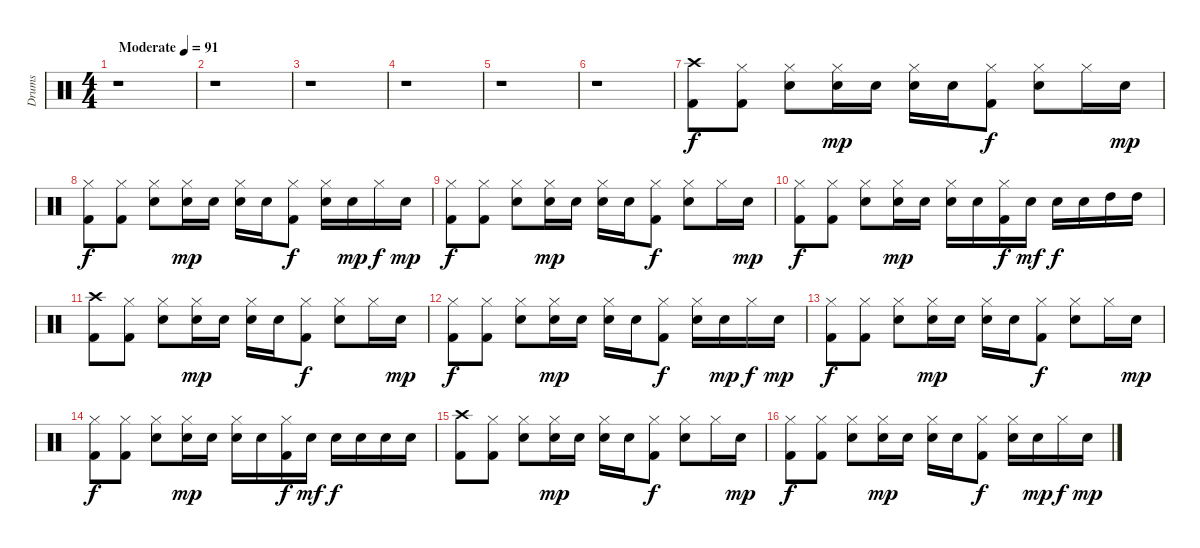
\track ("Drums" "Drums") {instrument percussion}
\staff {score}
\articulation defaults
\ts (4 4)
\tempo (91 "Moderate")
\clef neutral
\ks c
r.1{dy f} |
r.1 |
r.1 |
r.1 |
r.1 |
r.1 |
("Kick (hit) 2" "Crash high (hit)").8{volume 16 balance 8} ("Kick (hit) 2" "Hi-Hat (closed)").8 ("Snare (hit) 2" "Hi-Hat (closed)").8 ("Snare (hit) 2" "Hi-Hat (closed)").16{dy mp} "Snare (hit) 2".16 ("Snare (hit) 2" "Hi-Hat (closed)").16 "Snare (hit) 2".16 ("Kick (hit) 2" "Hi-Hat (closed)").8{dy f} ("Snare (hit) 2" "Hi-Hat (closed)").8 "Hi-Hat (closed)".16 "Snare (hit) 2".16{dy mp} |
("Kick (hit) 2" "Hi-Hat (closed)").8{dy f} ("Kick (hit) 2" "Hi-Hat (closed)").8 ("Snare (hit) 2" "Hi-Hat (closed)").8 ("Snare (hit) 2" "Hi-Hat (closed)").16{dy mp} "Snare (hit) 2".16 ("Snare (hit) 2" "Hi-Hat (closed)").16 "Snare (hit) 2".16 ("Kick (hit) 2" "Hi-Hat (closed)").8{dy f} ("Snare (hit) 2" "Hi-Hat (closed)").16 "Snare (hit) 2".16{dy mp} "Hi-Hat (closed)".16{dy f} "Snare (hit) 2".16{dy mp} |
("Kick (hit) 2" "Hi-Hat (closed)").8{dy f} ("Kick (hit) 2" "Hi-Hat (closed)").8 ("Snare (hit) 2" "Hi-Hat (closed)").8 ("Snare (hit) 2" "Hi-Hat (closed)").16{dy mp} "Snare (hit) 2".16 ("Snare (hit) 2" "Hi-Hat (closed)").16 "Snare (hit) 2".16 ("Kick (hit) 2" "Hi-Hat (closed)").8{dy f} ("Snare (hit) 2" "Hi-Hat (closed)").8 "Hi-Hat (closed)".16 "Snare (hit) 2".16{dy mp} |
("Hi-Hat (closed)" "Kick (hit) 2").8{dy f} ("Hi-Hat (closed)" "Kick (hit) 2").8 ("Hi-Hat (closed)" "Snare (hit) 2").8 ("Hi-Hat (closed)" "Snare (hit) 2").16{dy mp} "Snare (hit) 2".16 ("Hi-Hat (closed)" "Snare (hit) 2").16 "Snare (hit) 2".16 ("Hi-Hat (closed)" "Kick (hit) 2").16{dy f} "Snare (hit) 2".16{dy mf} "Snare (hit) 2".16{dy f} "Snare (hit) 2".16 "High Tom (hit)".16 "High Tom (hit)".16 |
("Kick (hit) 2" "Crash high (hit)").8{volume 16} ("Kick (hit) 2" "Hi-Hat (closed)").8 ("Snare (hit) 2" "Hi-Hat (closed)").8 ("Snare (hit) 2" "Hi-Hat (closed)").16{dy mp} "Snare (hit) 2".16 ("Snare (hit) 2" "Hi-Hat (closed)").16 "Snare (hit) 2".16 ("Kick (hit) 2" "Hi-Hat (closed)").8{dy f} ("Snare (hit) 2" "Hi-Hat (closed)").8 "Hi-Hat (closed)".16 "Snare (hit) 2".16{dy mp} |
("Kick (hit) 2" "Hi-Hat (closed)").8{dy f} ("Kick (hit) 2" "Hi-Hat (closed)").8 ("Snare (hit) 2" "Hi-Hat (closed)").8 ("Snare (hit) 2" "Hi-Hat (closed)").16{dy mp} "Snare (hit) 2".16 ("Snare (hit) 2" "Hi-Hat (closed)").16 "Snare (hit) 2".16 ("Kick (hit) 2" "Hi-Hat (closed)").8{dy f} ("Snare (hit) 2" "Hi-Hat (closed)").16 "Snare (hit) 2".16{dy mp} "Hi-Hat (closed)".16{dy f} "Snare (hit) 2".16{dy mp} |
("Kick (hit) 2" "Hi-Hat (closed)").8{dy f} ("Kick (hit) 2" "Hi-Hat (closed)").8 ("Snare (hit) 2" "Hi-Hat (closed)").8 ("Snare (hit) 2" "Hi-Hat (closed)").16{dy mp} "Snare (hit) 2".16 ("Snare (hit) 2" "Hi-Hat (closed)").16 "Snare (hit) 2".16 ("Kick (hit) 2" "Hi-Hat (closed)").8{dy f} ("Snare (hit) 2" "Hi-Hat (closed)").8 "Hi-Hat (closed)".16 "Snare (hit) 2".16{dy mp} |
("Hi-Hat (closed)" "Kick (hit) 2").8{dy f} ("Hi-Hat (closed)" "Kick (hit) 2").8 ("Hi-Hat (closed)" "Snare (hit) 2").8 ("Hi-Hat (closed)" "Snare (hit) 2").16{dy mp} "Snare (hit) 2".16 ("Hi-Hat (closed)" "Snare (hit) 2").16 "Snare (hit) 2".16 ("Hi-Hat (closed)" "Kick (hit) 2").16{dy f} "Snare (hit) 2".16{dy mf} "Snare (hit) 2".16{dy f} "Snare (hit) 2".16 "Snare (hit) 2".16 "Snare (hit) 2".16 |
("Kick (hit) 2" "Crash high (hit)").8 ("Kick (hit) 2" "Hi-Hat (closed)").8 ("Snare (hit) 2" "Hi-Hat (closed)").8 ("Snare (hit) 2" "Hi-Hat (closed)").16{dy mp} "Snare (hit) 2".16 ("Snare (hit) 2" "Hi-Hat (closed)").16 "Snare (hit) 2".16 ("Kick (hit) 2" "Hi-Hat (closed)").8{dy f} ("Snare (hit) 2" "Hi-Hat (closed)").8 "Hi-Hat (closed)".16 "Snare (hit) 2".16{dy mp} |
("Kick (hit) 2" "Hi-Hat (closed)").8{dy f} ("Kick (hit) 2" "Hi-Hat (closed)").8 ("Snare (hit) 2" "Hi-Hat (closed)").8 ("Snare (hit) 2" "Hi-Hat (closed)").16{dy mp} "Snare (hit) 2".16 ("Snare (hit) 2" "Hi-Hat (closed)").16 "Snare (hit) 2".16 ("Kick (hit) 2" "Hi-Hat (closed)").8{dy f} ("Snare (hit) 2" "Hi-Hat (closed)").16 "Snare (hit) 2".16{dy mp} "Hi-Hat (closed)".16{dy f} "Snare (hit) 2".16{dy mp}
